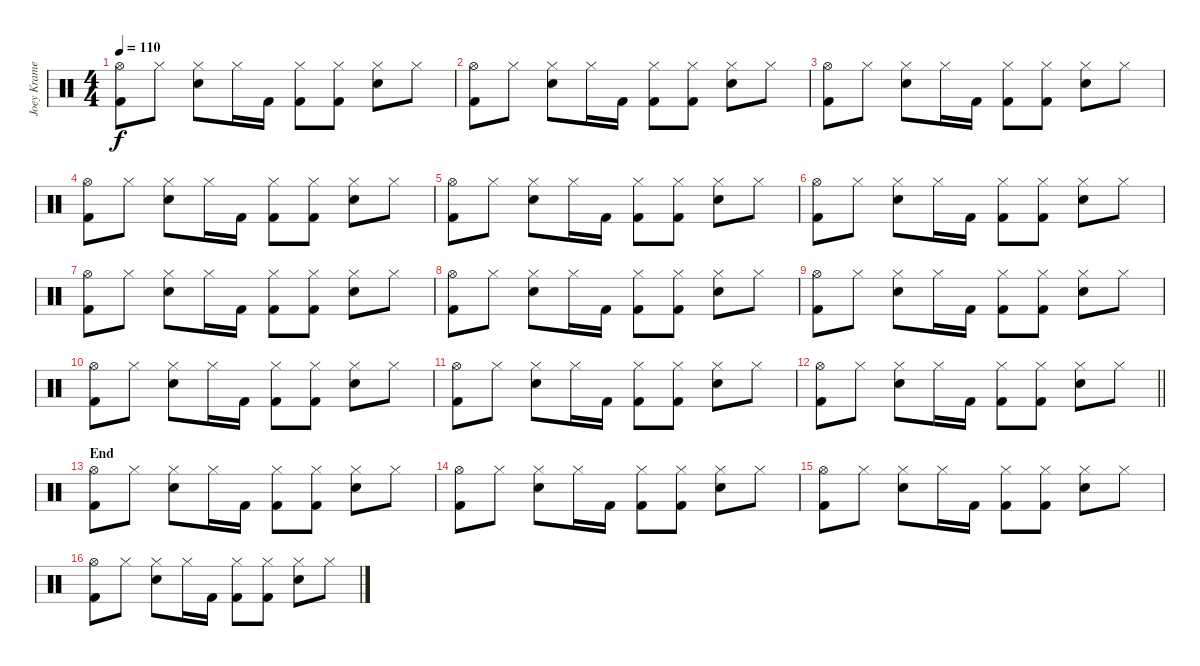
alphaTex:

\track ("Joey Kramer - Drums" "Joey Krame") {instrument percussion}
\staff {score}
\articulation defaults
\ts (4 4)
\tempo 110
\clef neutral
\ks c
("Hi-Hat (open)" "Kick (hit) 2").8{dy f} "Hi-Hat (closed)".8 ("Hi-Hat (closed)" "Electric Snare (hit)").8 "Hi-Hat (closed)".16 "Kick (hit) 2".16 ("Hi-Hat (closed)" "Kick (hit) 2").8 ("Hi-Hat (closed)" "Kick (hit) 2").8 ("Hi-Hat (closed)" "Electric Snare (hit)").8 "Hi-Hat (closed)".8 |
("Hi-Hat (open)" "Kick (hit) 2").8 "Hi-Hat (closed)".8 ("Hi-Hat (closed)" "Electric Snare (hit)").8 "Hi-Hat (closed)".16 "Kick (hit) 2".16 ("Hi-Hat (closed)" "Kick (hit) 2").8 ("Hi-Hat (closed)" "Kick (hit) 2").8 ("Hi-Hat (closed)" "Electric Snare (hit)").8 "Hi-Hat (closed)".8 |
("Hi-Hat (open)" "Kick (hit) 2").8 "Hi-Hat (closed)".8 ("Hi-Hat (closed)" "Electric Snare (hit)").8 "Hi-Hat (closed)".16 "Kick (hit) 2".16 ("Hi-Hat (closed)" "Kick (hit) 2").8 ("Hi-Hat (closed)" "Kick (hit) 2").8 ("Hi-Hat (closed)" "Electric Snare (hit)").8 "Hi-Hat (closed)".8 |
("Hi-Hat (open)" "Kick (hit) 2").8 "Hi-Hat (closed)".8 ("Hi-Hat (closed)" "Electric Snare (hit)").8 "Hi-Hat (closed)".16 "Kick (hit) 2".16 ("Hi-Hat (closed)" "Kick (hit) 2").8 ("Hi-Hat (closed)" "Kick (hit) 2").8 ("Hi-Hat (closed)" "Electric Snare (hit)").8 "Hi-Hat (closed)".8 |
("Hi-Hat (open)" "Kick (hit) 2").8 "Hi-Hat (closed)".8 ("Hi-Hat (closed)" "Electric Snare (hit)").8 "Hi-Hat (closed)".16 "Kick (hit) 2".16 ("Hi-Hat (closed)" "Kick (hit) 2").8 ("Hi-Hat (closed)" "Kick (hit) 2").8 ("Hi-Hat (closed)" "Electric Snare (hit)").8 "Hi-Hat (closed)".8 |
("Hi-Hat (open)" "Kick (hit) 2").8 "Hi-Hat (closed)".8 ("Hi-Hat (closed)" "Electric Snare (hit)").8 "Hi-Hat (closed)".16 "Kick (hit) 2".16 ("Hi-Hat (closed)" "Kick (hit) 2").8 ("Hi-Hat (closed)" "Kick (hit) 2").8 ("Hi-Hat (closed)" "Electric Snare (hit)").8 "Hi-Hat (closed)".8 |
("Hi-Hat (open)" "Kick (hit) 2").8 "Hi-Hat (closed)".8 ("Hi-Hat (closed)" "Electric Snare (hit)").8 "Hi-Hat (closed)".16 "Kick (hit) 2".16 ("Hi-Hat (closed)" "Kick (hit) 2").8 ("Hi-Hat (closed)" "Kick (hit) 2").8 ("Hi-Hat (closed)" "Electric Snare (hit)").8 "Hi-Hat (closed)".8 |
("Hi-Hat (open)" "Kick (hit) 2").8 "Hi-Hat (closed)".8 ("Hi-Hat (closed)" "Electric Snare (hit)").8 "Hi-Hat (closed)".16 "Kick (hit) 2".16 ("Hi-Hat (closed)" "Kick (hit) 2").8 ("Hi-Hat (closed)" "Kick (hit) 2").8 ("Hi-Hat (closed)" "Electric Snare (hit)").8 "Hi-Hat (closed)".8 |
("Hi-Hat (open)" "Kick (hit) 2").8 "Hi-Hat (closed)".8 ("Hi-Hat (closed)" "Electric Snare (hit)").8 "Hi-Hat (closed)".16 "Kick (hit) 2".16 ("Hi-Hat (closed)" "Kick (hit) 2").8 ("Hi-Hat (closed)" "Kick (hit) 2").8 ("Hi-Hat (closed)" "Electric Snare (hit)").8 "Hi-Hat (closed)".8 |
("Hi-Hat (open)" "Kick (hit) 2").8 "Hi-Hat (closed)".8 ("Hi-Hat (closed)" "Electric Snare (hit)").8 "Hi-Hat (closed)".16 "Kick (hit) 2".16 ("Hi-Hat (closed)" "Kick (hit) 2").8 ("Hi-Hat (closed)" "Kick (hit) 2").8 ("Hi-Hat (closed)" "Electric Snare (hit)").8 "Hi-Hat (closed)".8 |
("Hi-Hat (open)" "Kick (hit) 2").8 "Hi-Hat (closed)".8 ("Hi-Hat (closed)" "Electric Snare (hit)").8 "Hi-Hat (closed)".16 "Kick (hit) 2".16 ("Hi-Hat (closed)" "Kick (hit) 2").8 ("Hi-Hat (closed)" "Kick (hit) 2").8 ("Hi-Hat (closed)" "Electric Snare (hit)").8 "Hi-Hat (closed)".8 |
\barLineRight lightlight
("Hi-Hat (open)" "Kick (hit) 2").8 "Hi-Hat (closed)".8 ("Hi-Hat (closed)" "Electric Snare (hit)").8 "Hi-Hat (closed)".16 "Kick (hit) 2".16 ("Hi-Hat (closed)" "Kick (hit) 2").8 ("Hi-Hat (closed)" "Kick (hit) 2").8 ("Hi-Hat (closed)" "Electric Snare (hit)").8 "Hi-Hat (closed)".8 |
\section ("" "End")
("Hi-Hat (open)" "Kick (hit) 2").8 "Hi-Hat (closed)".8 ("Hi-Hat (closed)" "Electric Snare (hit)").8 "Hi-Hat (closed)".16 "Kick (hit) 2".16 ("Hi-Hat (closed)" "Kick (hit) 2").8 ("Hi-Hat (closed)" "Kick (hit) 2").8 ("Hi-Hat (closed)" "Electric Snare (hit)").8 "Hi-Hat (closed)".8 |
("Hi-Hat (open)" "Kick (hit) 2").8 "Hi-Hat (closed)".8 ("Hi-Hat (closed)" "Electric Snare (hit)").8 "Hi-Hat (closed)".16 "Kick (hit) 2".16 ("Hi-Hat (closed)" "Kick (hit) 2").8 ("Hi-Hat (closed)" "Kick (hit) 2").8 ("Hi-Hat (closed)" "Electric Snare (hit)").8 "Hi-Hat (closed)".8 |
("Hi-Hat (open)" "Kick (hit) 2").8 "Hi-Hat (closed)".8 ("Hi-Hat (closed)" "Electric Snare (hit)").8 "Hi-Hat (closed)".16 "Kick (hit) 2".16 ("Hi-Hat (closed)" "Kick (hit) 2").8 ("Hi-Hat (closed)" "Kick (hit) 2").8 ("Hi-Hat (closed)" "Electric Snare (hit)").8 "Hi-Hat (closed)".8 |
("Hi-Hat (open)" "Kick (hit) 2").8 "Hi-Hat (closed)".8 ("Hi-Hat (closed)" "Electric Snare (hit)").8 "Hi-Hat (closed)".16 "Kick (hit) 2".16 ("Hi-Hat (closed)" "Kick (hit) 2").8 ("Hi-Hat (closed)" "Kick (hit) 2").8 ("Hi-Hat (closed)" "Electric Snare (hit)").8 "Hi-Hat (closed)".8
